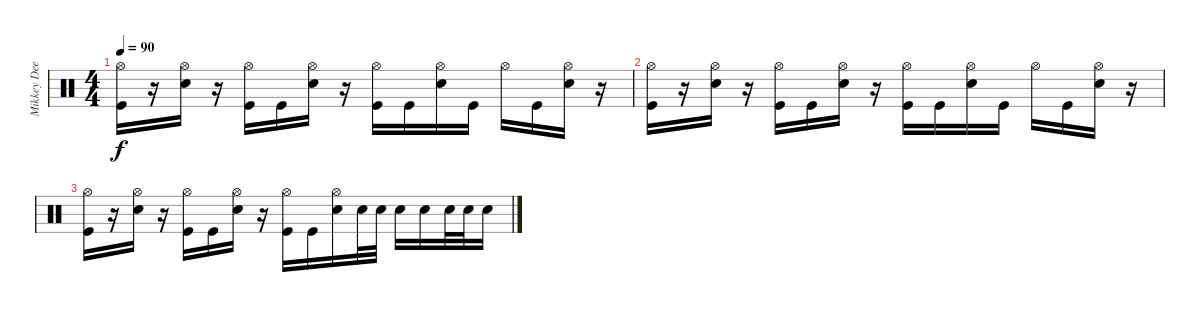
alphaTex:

\track ("Mikkey Dee" "Mikkey Dee") {instrument percussion}
\staff {score}
\articulation defaults
\ts (4 4)
\tempo 90
\clef neutral
\ks c
("Hi-Hat (open)" "Kick (hit)").16{dy f} r.16 ("Hi-Hat (open)" "Snare (hit) 2").16 r.16 ("Hi-Hat (open)" "Kick (hit)").16 "Kick (hit)".16 ("Hi-Hat (open)" "Snare (hit) 2").16 r.16 ("Hi-Hat (open)" "Kick (hit)").16 "Kick (hit)".16 ("Hi-Hat (open)" "Snare (hit) 2").16 "Kick (hit)".16 "Hi-Hat (open)".16 "Kick (hit)".16 ("Hi-Hat (open)" "Snare (hit) 2").16 r.16 |
("Hi-Hat (open)" "Kick (hit)").16 r.16 ("Hi-Hat (open)" "Snare (hit) 2").16 r.16 ("Hi-Hat (open)" "Kick (hit)").16 "Kick (hit)".16 ("Hi-Hat (open)" "Snare (hit) 2").16 r.16 ("Hi-Hat (open)" "Kick (hit)").16 "Kick (hit)".16 ("Hi-Hat (open)" "Snare (hit) 2").16 "Kick (hit)".16 "Hi-Hat (open)".16 "Kick (hit)".16 ("Hi-Hat (open)" "Snare (hit) 2").16 r.16 |
("Hi-Hat (open)" "Kick (hit)").16 r.16 ("Hi-Hat (open)" "Snare (hit) 2").16 r.16 ("Hi-Hat (open)" "Kick (hit)").16 "Kick (hit)".16 ("Hi-Hat (open)" "Snare (hit) 2").16 r.16 ("Hi-Hat (open)" "Kick (hit)").16 "Kick (hit)".16 ("Hi-Hat (open)" "Snare (hit) 2").16 "Snare (hit) 2".32 "Snare (hit) 2".32 "Snare (hit) 2".16 "Snare (hit) 2".16 "Snare (hit) 2".32 "Snare (hit) 2".32 "Snare (hit) 2".16
